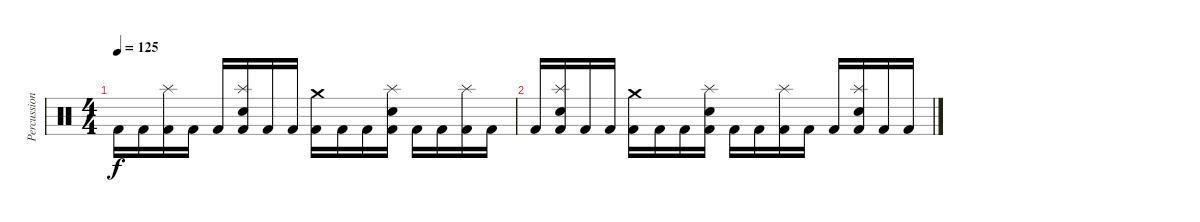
\track ("Percussion" "Percussion") {instrument percussion}
\staff {score}
\articulation defaults
\ts (4 4)
\tempo 125
\clef neutral
\ks c "Kick (hit) 2".16{dy f} "Kick (hit) 2".16
("Splash (hit)" "Kick (hit) 2").16 "Kick (hit) 2".16 "Kick (hit) 2".16 ("Splash (hit)" "Electric Snare (hit)" "Kick (hit) 2").16 "Kick (hit) 2".16 "Kick (hit) 2".16 ("Crash medium (hit)" "Kick (hit) 2").16 "Kick (hit) 2".16 "Kick (hit) 2".16 ("Splash (hit)" "Electric Snare (hit)" "Kick (hit) 2").16 "Kick (hit) 2".16 "Kick (hit) 2".16 ("Splash (hit)" "Kick (hit) 2").16 "Kick (hit) 2".16 |
"Kick (hit) 2".16 ("Splash (hit)" "Electric Snare (hit)" "Kick (hit) 2").16 "Kick (hit) 2".16 "Kick (hit) 2".16 ("Crash medium (hit)" "Kick (hit) 2").16 "Kick (hit) 2".16 "Kick (hit) 2".16 ("Splash (hit)" "Electric Snare (hit)" "Kick (hit) 2").16 "Kick (hit) 2".16 "Kick (hit) 2".16 ("Splash (hit)" "Kick (hit) 2").16 "Kick (hit) 2".16 "Kick (hit) 2".16 ("Splash (hit)" "Electric Snare (hit)" "Kick (hit) 2").16 "Kick (hit) 2".16 "Kick (hit) 2".16
